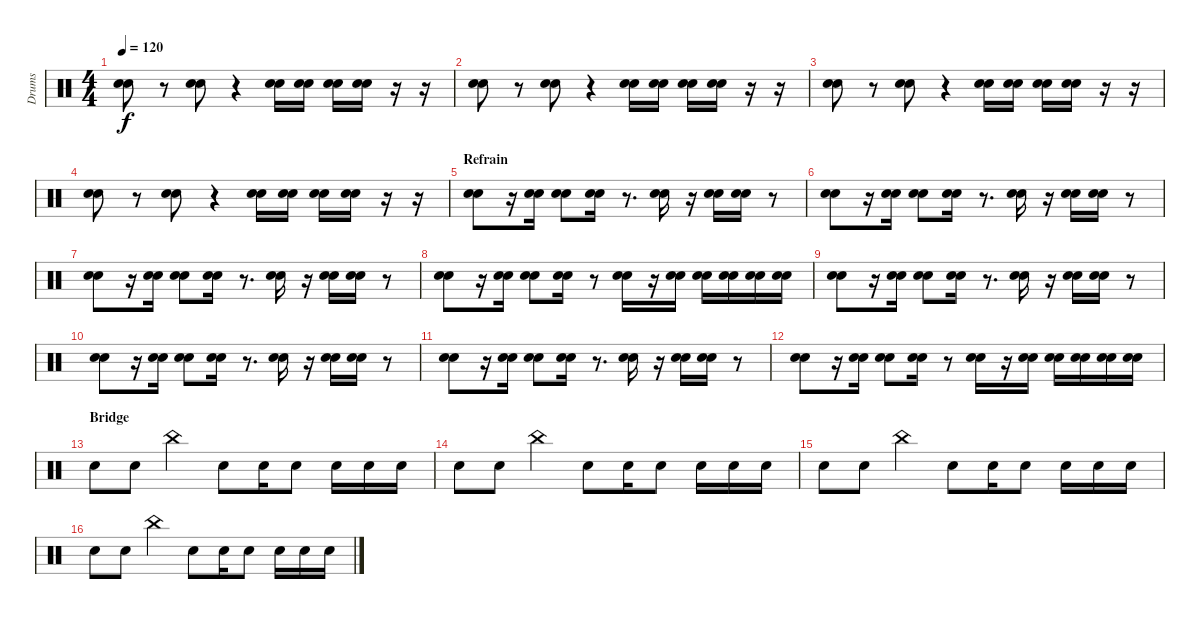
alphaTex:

\track ("Drums" "Drums") {instrument percussion}
\staff {score}
\articulation defaults
\ts (4 4)
\tempo 120
\clef neutral
\ks c
("Snare (hit) 2" "Electric Snare (hit)").8{dy f} r.8 ("Snare (hit) 2" "Electric Snare (hit)").8 r.4 ("Snare (hit) 2" "Electric Snare (hit)").16 ("Snare (hit) 2" "Electric Snare (hit)").16 ("Snare (hit) 2" "Electric Snare (hit)").16 ("Snare (hit) 2" "Electric Snare (hit)").16 r.16 r.16 |
("Snare (hit) 2" "Electric Snare (hit)").8 r.8 ("Snare (hit) 2" "Electric Snare (hit)").8 r.4 ("Snare (hit) 2" "Electric Snare (hit)").16 ("Snare (hit) 2" "Electric Snare (hit)").16 ("Snare (hit) 2" "Electric Snare (hit)").16 ("Snare (hit) 2" "Electric Snare (hit)").16 r.16 r.16 |
("Snare (hit) 2" "Electric Snare (hit)").8 r.8 ("Snare (hit) 2" "Electric Snare (hit)").8 r.4 ("Snare (hit) 2" "Electric Snare (hit)").16 ("Snare (hit) 2" "Electric Snare (hit)").16 ("Snare (hit) 2" "Electric Snare (hit)").16 ("Snare (hit) 2" "Electric Snare (hit)").16 r.16 r.16 |
("Snare (hit) 2" "Electric Snare (hit)").8 r.8 ("Snare (hit) 2" "Electric Snare (hit)").8 r.4 ("Snare (hit) 2" "Electric Snare (hit)").16 ("Snare (hit) 2" "Electric Snare (hit)").16 ("Snare (hit) 2" "Electric Snare (hit)").16 ("Snare (hit) 2" "Electric Snare (hit)").16 r.16 r.16 |
\section ("" "Refrain")
("Snare (hit) 2" "Electric Snare (hit)").8{volume 16} r.16 ("Snare (hit) 2" "Electric Snare (hit)").16 ("Snare (hit) 2" "Electric Snare (hit)").8 ("Snare (hit) 2" "Electric Snare (hit)").16 r.8{d} ("Snare (hit) 2" "Electric Snare (hit)").16 r.16 ("Snare (hit) 2" "Electric Snare (hit)").16 ("Snare (hit) 2" "Electric Snare (hit)").16 r.8 |
("Snare (hit) 2" "Electric Snare (hit)").8 r.16 ("Snare (hit) 2" "Electric Snare (hit)").16 ("Snare (hit) 2" "Electric Snare (hit)").8 ("Snare (hit) 2" "Electric Snare (hit)").16 r.8{d} ("Snare (hit) 2" "Electric Snare (hit)").16 r.16 ("Snare (hit) 2" "Electric Snare (hit)").16 ("Snare (hit) 2" "Electric Snare (hit)").16 r.8 |
("Snare (hit) 2" "Electric Snare (hit)").8 r.16 ("Snare (hit) 2" "Electric Snare (hit)").16 ("Snare (hit) 2" "Electric Snare (hit)").8 ("Snare (hit) 2" "Electric Snare (hit)").16 r.8{d} ("Snare (hit) 2" "Electric Snare (hit)").16 r.16 ("Snare (hit) 2" "Electric Snare (hit)").16 ("Snare (hit) 2" "Electric Snare (hit)").16 r.8 |
("Snare (hit) 2" "Electric Snare (hit)").8 r.16 ("Snare (hit) 2" "Electric Snare (hit)").16 ("Snare (hit) 2" "Electric Snare (hit)").8 ("Snare (hit) 2" "Electric Snare (hit)").16 r.8 ("Snare (hit) 2" "Electric Snare (hit)").16 r.16 ("Snare (hit) 2" "Electric Snare (hit)").16 ("Snare (hit) 2" "Electric Snare (hit)").16 ("Snare (hit) 2" "Electric Snare (hit)").16 ("Snare (hit) 2" "Electric Snare (hit)").16 ("Snare (hit) 2" "Electric Snare (hit)").16 |
("Snare (hit) 2" "Electric Snare (hit)").8{volume 13} r.16 ("Snare (hit) 2" "Electric Snare (hit)").16 ("Snare (hit) 2" "Electric Snare (hit)").8 ("Snare (hit) 2" "Electric Snare (hit)").16 r.8{d} ("Snare (hit) 2" "Electric Snare (hit)").16 r.16 ("Snare (hit) 2" "Electric Snare (hit)").16 ("Snare (hit) 2" "Electric Snare (hit)").16 r.8 |
("Snare (hit) 2" "Electric Snare (hit)").8 r.16 ("Snare (hit) 2" "Electric Snare (hit)").16 ("Snare (hit) 2" "Electric Snare (hit)").8 ("Snare (hit) 2" "Electric Snare (hit)").16 r.8{d} ("Snare (hit) 2" "Electric Snare (hit)").16 r.16 ("Snare (hit) 2" "Electric Snare (hit)").16 ("Snare (hit) 2" "Electric Snare (hit)").16 r.8 |
("Snare (hit) 2" "Electric Snare (hit)").8 r.16 ("Snare (hit) 2" "Electric Snare (hit)").16 ("Snare (hit) 2" "Electric Snare (hit)").8 ("Snare (hit) 2" "Electric Snare (hit)").16 r.8{d} ("Snare (hit) 2" "Electric Snare (hit)").16 r.16 ("Snare (hit) 2" "Electric Snare (hit)").16 ("Snare (hit) 2" "Electric Snare (hit)").16 r.8 |
("Snare (hit) 2" "Electric Snare (hit)").8 r.16 ("Snare (hit) 2" "Electric Snare (hit)").16 ("Snare (hit) 2" "Electric Snare (hit)").8 ("Snare (hit) 2" "Electric Snare (hit)").16 r.8 ("Snare (hit) 2" "Electric Snare (hit)").16 r.16 ("Snare (hit) 2" "Electric Snare (hit)").16 ("Snare (hit) 2" "Electric Snare (hit)").16 ("Snare (hit) 2" "Electric Snare (hit)").16 ("Snare (hit) 2" "Electric Snare (hit)").16 ("Snare (hit) 2" "Electric Snare (hit)").16 |
\section ("" "Bridge")
"Snare (hit) 2".8 "Snare (hit) 2".8 "China (hit)".4 "Snare (hit) 2".8 "Snare (hit) 2".16 "Snare (hit) 2".8 "Snare (hit) 2".16 "Snare (hit) 2".16 "Snare (hit) 2".16 |
"Snare (hit) 2".8 "Snare (hit) 2".8 "China (hit)".4 "Snare (hit) 2".8 "Snare (hit) 2".16 "Snare (hit) 2".8 "Snare (hit) 2".16 "Snare (hit) 2".16 "Snare (hit) 2".16 |
"Snare (hit) 2".8 "Snare (hit) 2".8 "China (hit)".4 "Snare (hit) 2".8 "Snare (hit) 2".16 "Snare (hit) 2".8 "Snare (hit) 2".16 "Snare (hit) 2".16 "Snare (hit) 2".16 |
"Snare (hit) 2".8 "Snare (hit) 2".8 "China (hit)".4 "Snare (hit) 2".8 "Snare (hit) 2".16 "Snare (hit) 2".8 "Snare (hit) 2".16 "Snare (hit) 2".16 "Snare (hit) 2".16
